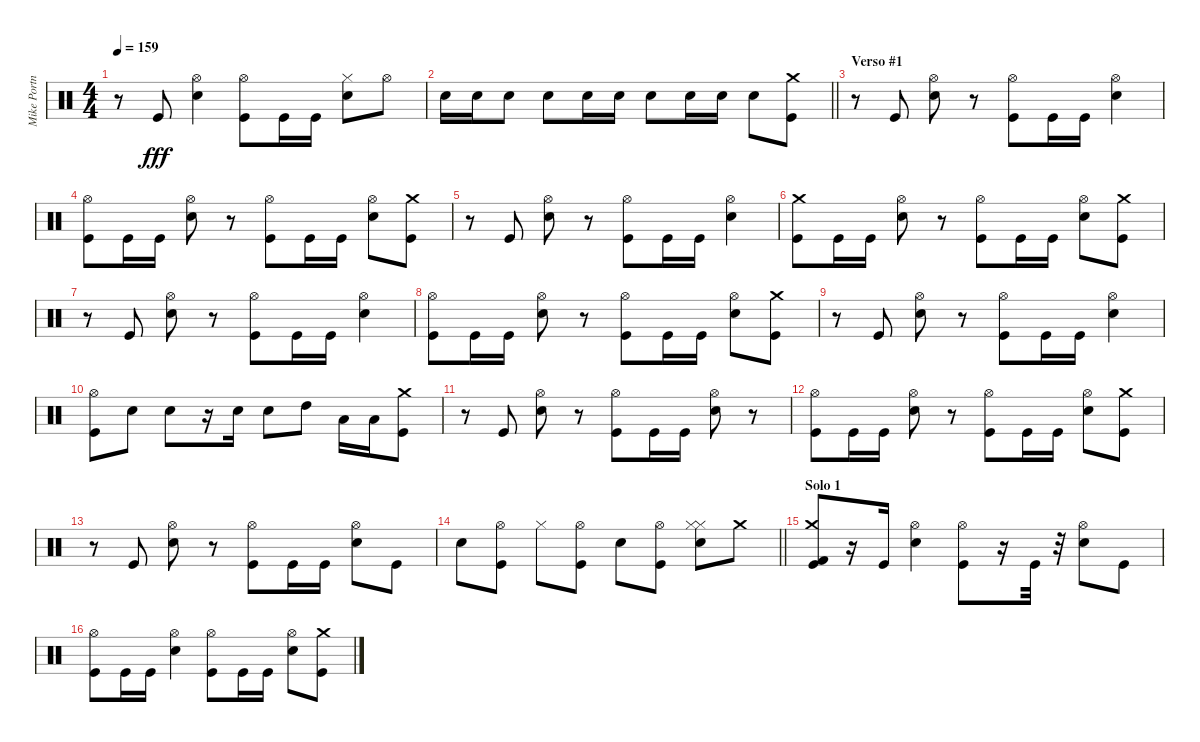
\track ("Mike Portnoy" "Mike Portn") {instrument percussion}
\staff {score}
\articulation defaults
\ts (4 4)
\tempo 159
\clef neutral
\ks c
r.8{dy fff} "Kick (hit)".8 ("Hi-Hat (open)" "Electric Snare (hit)").4 ("Hi-Hat (open)" "Kick (hit)").8 "Kick (hit)".16 "Kick (hit)".16 ("Hi-Hat (closed)" "Electric Snare (hit)").8 "Hi-Hat (open)".8 |
\barLineRight lightlight "Electric Snare (hit)".16 "Electric Snare (hit)".16 "Electric Snare (hit)".8 "Electric Snare (hit)".8 "Electric Snare (hit)".16 "Electric Snare (hit)".16 "Electric Snare (hit)".8 "Electric Snare (hit)".16 "Electric Snare (hit)".16 "Electric Snare (hit)".8
("Crash medium (hit)" "Kick (hit)").8 |
\section ("" "Verso #1")
r.8 "Kick (hit)".8 ("Hi-Hat (open)" "Electric Snare (hit)").8 r.8 ("Hi-Hat (open)" "Kick (hit)").8 "Kick (hit)".16 "Kick (hit)".16 ("Hi-Hat (open)" "Electric Snare (hit)").4 |
("Hi-Hat (open)" "Kick (hit)").8 "Kick (hit)".16 "Kick (hit)".16 ("Hi-Hat (open)" "Electric Snare (hit)").8 r.8 ("Hi-Hat (open)" "Kick (hit)").8 "Kick (hit)".16 "Kick (hit)".16 ("Hi-Hat (open)" "Electric Snare (hit)").8 ("Crash medium (hit)" "Kick (hit)").8 |
r.8 "Kick (hit)".8 ("Hi-Hat (open)" "Electric Snare (hit)").8 r.8 ("Hi-Hat (open)" "Kick (hit)").8 "Kick (hit)".16 "Kick (hit)".16 ("Hi-Hat (open)" "Electric Snare (hit)").4 |
("Crash medium (hit)" "Kick (hit)").8 "Kick (hit)".16 "Kick (hit)".16 ("Hi-Hat (open)" "Electric Snare (hit)").8 r.8 ("Hi-Hat (open)" "Kick (hit)").8 "Kick (hit)".16 "Kick (hit)".16 ("Hi-Hat (open)" "Electric Snare (hit)").8 ("Crash medium (hit)" "Kick (hit)").8 |
r.8 "Kick (hit)".8 ("Hi-Hat (open)" "Electric Snare (hit)").8 r.8 ("Hi-Hat (open)" "Kick (hit)").8 "Kick (hit)".16 "Kick (hit)".16 ("Hi-Hat (open)" "Electric Snare (hit)").4 |
("Hi-Hat (open)" "Kick (hit)").8 "Kick (hit)".16 "Kick (hit)".16 ("Hi-Hat (open)" "Electric Snare (hit)").8 r.8 ("Hi-Hat (open)" "Kick (hit)").8 "Kick (hit)".16 "Kick (hit)".16 ("Hi-Hat (open)" "Electric Snare (hit)").8 ("Crash medium (hit)" "Kick (hit)").8 |
r.8 "Kick (hit)".8 ("Hi-Hat (open)" "Electric Snare (hit)").8 r.8 ("Hi-Hat (open)" "Kick (hit)").8 "Kick (hit)".16 "Kick (hit)".16 ("Hi-Hat (open)" "Electric Snare (hit)").4 |
("Hi-Hat (open)" "Kick (hit)").8 "Electric Snare (hit)".8 "Electric Snare (hit)".8 r.16 "Electric Snare (hit)".16 "Electric Snare (hit)".8 "High Tom (hit)".8 "Low Tom (hit)".16 "Low Tom (hit)".16 ("Crash medium (hit)" "Kick (hit)").8 |
r.8 "Kick (hit)".8 ("Hi-Hat (open)" "Electric Snare (hit)").8 r.8 ("Hi-Hat (open)" "Kick (hit)").8 "Kick (hit)".16 "Kick (hit)".16 ("Hi-Hat (open)" "Electric Snare (hit)").8 r.8 |
("Hi-Hat (open)" "Kick (hit)").8 "Kick (hit)".16 "Kick (hit)".16 ("Hi-Hat (open)" "Electric Snare (hit)").8 r.8 ("Hi-Hat (open)" "Kick (hit)").8 "Kick (hit)".16 "Kick (hit)".16 ("Hi-Hat (open)" "Electric Snare (hit)").8 ("Crash medium (hit)" "Kick (hit)").8 |
r.8 "Kick (hit)".8 ("Hi-Hat (open)" "Electric Snare (hit)").8 r.8 ("Hi-Hat (open)" "Kick (hit)").8 "Kick (hit)".16 "Kick (hit)".16 ("Hi-Hat (open)" "Electric Snare (hit)").8 "Kick (hit)".8 |
\barLineRight lightlight "Electric Snare (hit)".8
("Hi-Hat (open)" "Kick (hit)").8 "Hi-Hat (closed)".8 ("Hi-Hat (open)" "Kick (hit)").8 "Electric Snare (hit)".8 ("Hi-Hat (open)" "Kick (hit)").8 ("Hi-Hat (closed)" "Electric Snare (hit)" "Hi-Hat (closed)").8 "Crash medium (hit)".8 |
\section ("" "Solo 1")
("Kick (hit) 2" "Crash medium (hit)" "Kick (hit)").8 r.16 "Kick (hit)".16 ("Hi-Hat (open)" "Electric Snare (hit)").4 ("Hi-Hat (open)" "Kick (hit)").8 r.16 "Kick (hit)".32 r.32 ("Hi-Hat (open)" "Electric Snare (hit)").8 "Kick (hit)".8 |
("Hi-Hat (open)" "Kick (hit)").8 "Kick (hit)".16 "Kick (hit)".16 ("Hi-Hat (open)" "Electric Snare (hit)").4 ("Hi-Hat (open)" "Kick (hit)").8 "Kick (hit)".16 "Kick (hit)".16 ("Hi-Hat (open)" "Electric Snare (hit)").8 ("Crash medium (hit)" "Kick (hit)").8
